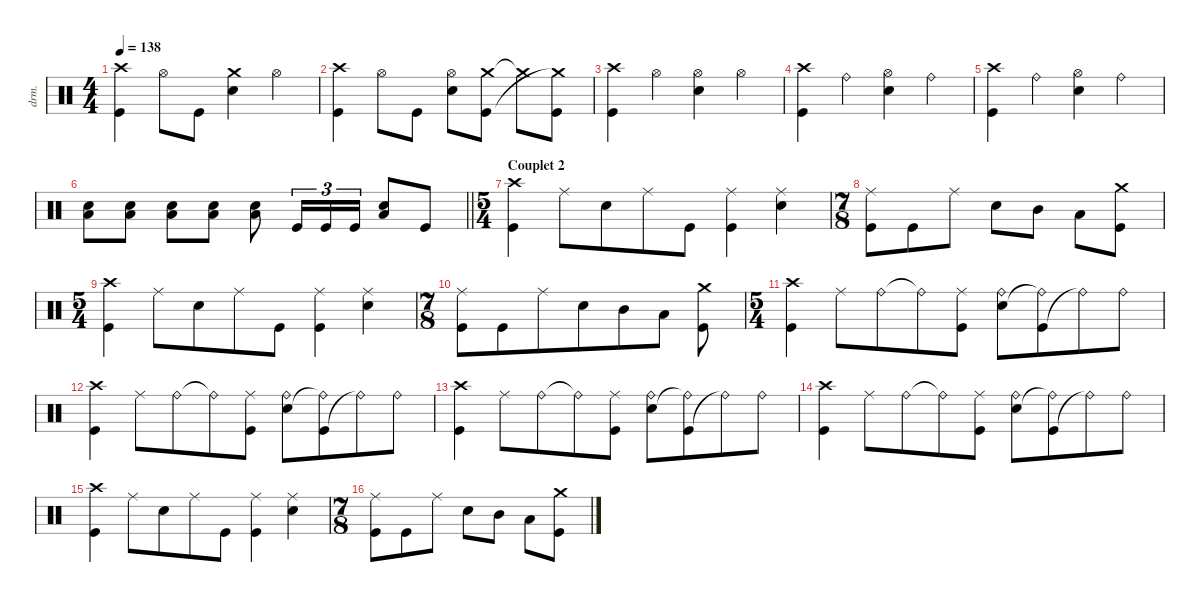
\defaultSystemsLayout 4
\hideDynamics
\bracketExtendMode nobrackets
\track ("Percussions" "drm.") {instrument percussion}
\staff {score}
\articulation defaults
\ts (4 4)
\tempo 138
\clef neutral
\ks aminor
("Kick (hit)" "Crash high (hit)").4{dy f} "Hi-Hat (open)".8 "Kick (hit)".8 ("Crash medium (hit)" "Snare (hit) 2").4 "Hi-Hat (open)".4 |
("Kick (hit)" "Crash high (hit)").4 "Hi-Hat (open)".8 "Kick (hit)".8 ("Hi-Hat (open)" "Snare (hit) 2").8 ("Crash medium (hit)" "Kick (hit)").8 "Crash medium (hit)"{t}.8 ("Kick (hit)" "Crash medium (hit)"{t}).8 |
("Kick (hit)" "Crash high (hit)").4 "Hi-Hat (open)".4 ("Hi-Hat (open)" "Snare (hit) 2").4 "Hi-Hat (open)".4 |
("Kick (hit)" "Crash high (hit)").4 "Ride (bell)".4 ("Hi-Hat (open)" "Snare (hit) 2").4 "Ride (bell)".4 |
("Kick (hit)" "Crash high (hit)").4 "Ride (bell)".4 ("Hi-Hat (open)" "Snare (hit) 2").4 "Ride (bell)".4 |
\barLineRight lightlight
("Snare (hit) 2" "Low Tom (hit)").8 ("Snare (hit) 2" "Low Tom (hit)").8 ("Snare (hit) 2" "Low Tom (hit)").8 ("Snare (hit) 2" "Low Tom (hit)").8 ("Snare (hit) 2" "Low Tom (hit)").8 "Kick (hit)".16{tu (3 2)} "Kick (hit)".16{tu (3 2)} "Kick (hit)".16{tu (3 2)} ("Snare (hit) 2" "Low Tom (hit)").8 "Kick (hit)".8 |
\ts (5 4)
\beaming (8 6 4)
\section ("" "Couplet 2")
("Crash high (hit)" "Kick (hit)").4 "Ride (middle)".8 "Snare (hit) 2".8 "Ride (middle)".8 "Kick (hit)".8 ("Ride (middle)" "Kick (hit)").4 ("Ride (middle)" "Snare (hit) 2").4 |
\ts (7 8)
\beaming (8 3 2 2)
("Ride (middle)" "Kick (hit)").8 "Kick (hit)".8 "Ride (middle)".8 "Snare (hit) 2".8 "Mid Tom (hit)".8 "Low Tom (hit)".8 ("Kick (hit)" "Crash medium (hit)").8 |
\ts (5 4)
\beaming (8 6 4)
("Crash high (hit)" "Kick (hit)").4 "Ride (middle)".8 "Snare (hit) 2".8 "Ride (middle)".8 "Kick (hit)".8 ("Ride (middle)" "Kick (hit)").4 ("Ride (middle)" "Snare (hit) 2").4 |
\ts (7 8)
\beaming (8 6 4)
("Ride (middle)" "Kick (hit)").8 "Kick (hit)".8 "Ride (middle)".8 "Snare (hit) 2".8 "Mid Tom (hit)".8 "Low Tom (hit)".8 ("Kick (hit)" "Crash medium (hit)").8 |
\ts (5 4)
\beaming (8 6 4)
("Crash high (hit)" "Kick (hit)").4 "Ride (middle)".8 "Ride (bell)".8 "Ride (bell)"{t}.8 ("Ride (middle)" "Kick (hit)").8 ("Ride (bell)" "Snare (hit) 2").8 ("Kick (hit)" "Ride (bell)"{t}).8 "Ride (bell)"{t}.8 "Ride (bell)".8 |
("Crash high (hit)" "Kick (hit)").4 "Ride (middle)".8 "Ride (bell)".8 "Ride (bell)"{t}.8 ("Ride (middle)" "Kick (hit)").8 ("Ride (bell)" "Snare (hit) 2").8 ("Kick (hit)" "Ride (bell)"{t}).8 "Ride (bell)"{t}.8 "Ride (bell)".8 |
("Crash high (hit)" "Kick (hit)").4 "Ride (middle)".8 "Ride (bell)".8 "Ride (bell)"{t}.8 ("Ride (middle)" "Kick (hit)").8 ("Ride (bell)" "Snare (hit) 2").8 ("Kick (hit)" "Ride (bell)"{t}).8 "Ride (bell)"{t}.8 "Ride (bell)".8 |
("Crash high (hit)" "Kick (hit)").4 "Ride (middle)".8 "Ride (bell)".8 "Ride (bell)"{t}.8 ("Ride (middle)" "Kick (hit)").8 ("Ride (bell)" "Snare (hit) 2").8 ("Kick (hit)" "Ride (bell)"{t}).8 "Ride (bell)"{t}.8 "Ride (bell)".8 |
("Crash high (hit)" "Kick (hit)").4 "Ride (middle)".8 "Snare (hit) 2".8 "Ride (middle)".8 "Kick (hit)".8 ("Ride (middle)" "Kick (hit)").4 ("Ride (middle)" "Snare (hit) 2").4 |
\ts (7 8)
\beaming (8 3 2 2)
("Ride (middle)" "Kick (hit)").8 "Kick (hit)".8 "Ride (middle)".8 "Snare (hit) 2".8 "Mid Tom (hit)".8 "Low Tom (hit)".8 ("Kick (hit)" "Crash medium (hit)").8
